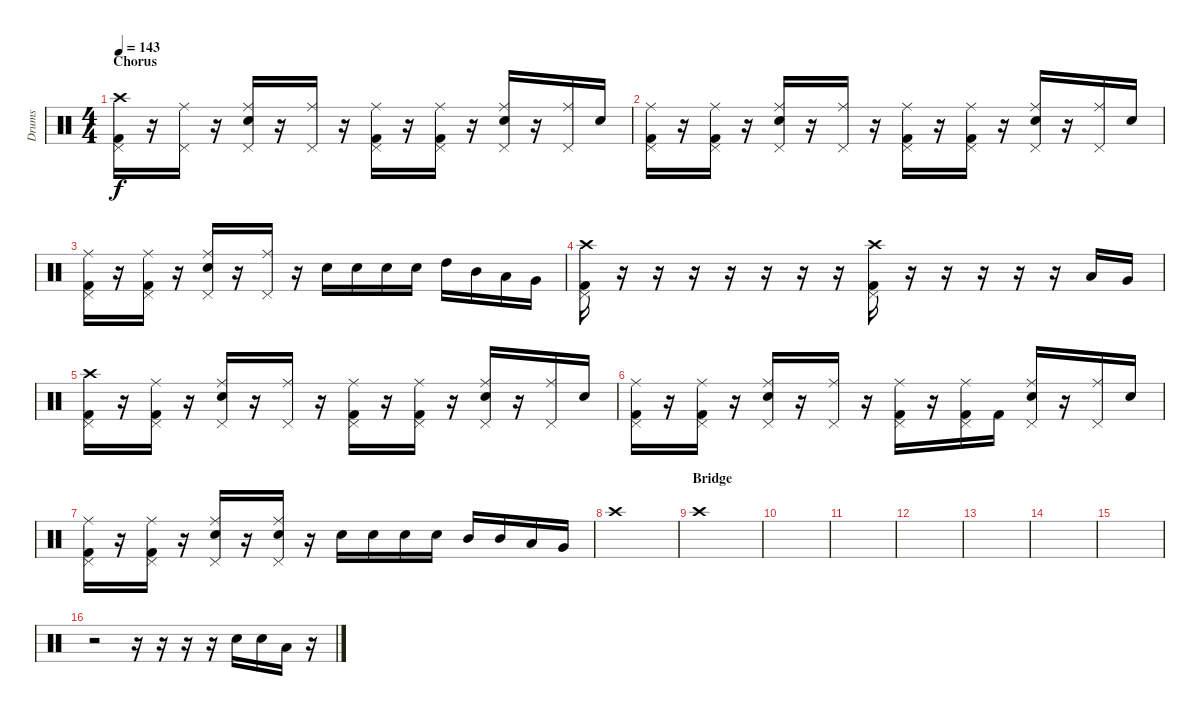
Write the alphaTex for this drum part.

\track ("Drums" "Drums") {instrument percussion}
\staff {score}
\articulation defaults
\ts (4 4)
\section ("" "Chorus")
\tempo 143
\clef neutral
\ks c
("Crash high (hit)" "Kick (hit) 2" "Pedal Hi-Hat (hit)").16{dy f} r.16 ("Ride (middle)" "Pedal Hi-Hat (hit)").16 r.16 ("Ride (middle)" "Electric Snare (hit)" "Pedal Hi-Hat (hit)").16 r.16 ("Ride (middle)" "Pedal Hi-Hat (hit)").16 r.16 ("Ride (middle)" "Kick (hit) 2" "Pedal Hi-Hat (hit)").16 r.16 ("Ride (middle)" "Kick (hit) 2" "Pedal Hi-Hat (hit)").16 r.16 ("Ride (middle)" "Electric Snare (hit)" "Pedal Hi-Hat (hit)").16 r.16 ("Ride (middle)" "Pedal Hi-Hat (hit)").16 "Electric Snare (hit)".16 |
("Ride (middle)" "Kick (hit) 2" "Pedal Hi-Hat (hit)").16 r.16 ("Ride (middle)" "Kick (hit) 2" "Pedal Hi-Hat (hit)").16 r.16 ("Ride (middle)" "Electric Snare (hit)" "Pedal Hi-Hat (hit)").16 r.16 ("Ride (middle)" "Pedal Hi-Hat (hit)").16 r.16 ("Ride (middle)" "Kick (hit) 2" "Pedal Hi-Hat (hit)").16 r.16 ("Ride (middle)" "Kick (hit) 2" "Pedal Hi-Hat (hit)").16 r.16 ("Ride (middle)" "Electric Snare (hit)" "Pedal Hi-Hat (hit)").16 r.16 ("Ride (middle)" "Pedal Hi-Hat (hit)").16 "Electric Snare (hit)".16 |
("Ride (middle)" "Kick (hit) 2" "Pedal Hi-Hat (hit)").16 r.16 ("Ride (middle)" "Kick (hit) 2" "Pedal Hi-Hat (hit)").16 r.16 ("Ride (middle)" "Electric Snare (hit)" "Pedal Hi-Hat (hit)").16 r.16 ("Ride (middle)" "Pedal Hi-Hat (hit)").16 r.16 "Electric Snare (hit)".16 "Electric Snare (hit)".16 "Electric Snare (hit)".16 "Electric Snare (hit)".16 "High Tom (hit)".16 "Mid Tom (hit)".16 "Low Tom (hit)".16 "Very Low Tom (hit)".16 |
("Crash high (hit)" "Kick (hit) 2" "Pedal Hi-Hat (hit)").16 r.16 r.16 r.16 r.16 r.16 r.16 r.16 ("Crash high (hit)" "Kick (hit) 2" "Pedal Hi-Hat (hit)").16 r.16 r.16 r.16 r.16 r.16 "Low Tom (hit)".16 "Very Low Tom (hit)".16 |
("Crash high (hit)" "Kick (hit) 2" "Pedal Hi-Hat (hit)").16 r.16 ("Ride (middle)" "Kick (hit) 2" "Pedal Hi-Hat (hit)").16 r.16 ("Ride (middle)" "Electric Snare (hit)" "Pedal Hi-Hat (hit)").16 r.16 ("Ride (middle)" "Pedal Hi-Hat (hit)").16 r.16 ("Ride (middle)" "Kick (hit) 2" "Pedal Hi-Hat (hit)").16 r.16 ("Ride (middle)" "Kick (hit) 2" "Pedal Hi-Hat (hit)").16 r.16 ("Ride (middle)" "Electric Snare (hit)" "Pedal Hi-Hat (hit)").16 r.16 ("Ride (middle)" "Pedal Hi-Hat (hit)").16 "Electric Snare (hit)".16 |
("Ride (middle)" "Kick (hit) 2" "Pedal Hi-Hat (hit)").16 r.16 ("Ride (middle)" "Kick (hit) 2" "Pedal Hi-Hat (hit)").16 r.16 ("Ride (middle)" "Electric Snare (hit)" "Pedal Hi-Hat (hit)").16 r.16 ("Ride (middle)" "Pedal Hi-Hat (hit)").16 r.16 ("Ride (middle)" "Kick (hit) 2" "Pedal Hi-Hat (hit)").16 r.16 ("Ride (middle)" "Kick (hit) 2" "Pedal Hi-Hat (hit)").16 "Kick (hit) 2".16 ("Ride (middle)" "Electric Snare (hit)" "Pedal Hi-Hat (hit)").16 r.16 ("Ride (middle)" "Pedal Hi-Hat (hit)").16 "Electric Snare (hit)".16 |
("Ride (middle)" "Kick (hit) 2" "Pedal Hi-Hat (hit)").16 r.16 ("Ride (middle)" "Kick (hit) 2" "Pedal Hi-Hat (hit)").16 r.16 ("Ride (middle)" "Electric Snare (hit)" "Pedal Hi-Hat (hit)").16 r.16 ("Ride (middle)" "Electric Snare (hit)" "Pedal Hi-Hat (hit)").16 r.16 "Electric Snare (hit)".16 "Electric Snare (hit)".16 "Electric Snare (hit)".16 "Electric Snare (hit)".16 "Mid Tom (hit)".16 "Mid Tom (hit)".16 "Low Tom (hit)".16 "Very Low Tom (hit)".16 |
"Crash high (hit)".1 |
\section ("" "Bridge")
"Crash high (hit)".1 |
|
|
|
|
|
|
r.2 r.16 r.16 r.16 r.16 "Electric Snare (hit)".16 "Electric Snare (hit)".16 "Low Tom (hit)".16 r.16
